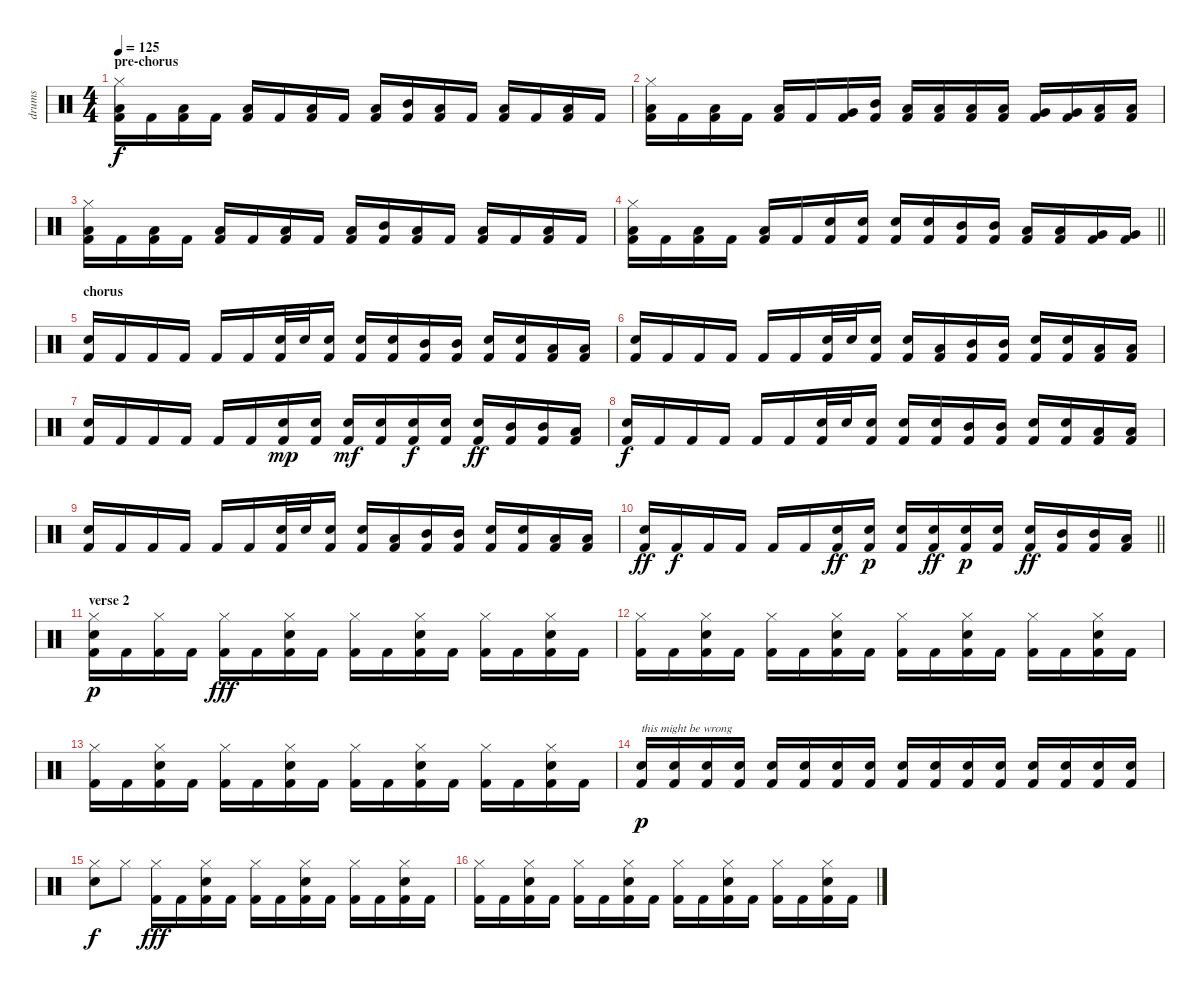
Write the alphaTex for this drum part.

\track ("drums" "drums") {instrument percussion}
\staff {score}
\articulation defaults
\ts (4 4)
\section ("" "pre-chorus")
\tempo 125
\clef neutral
\ks c
("Hi-Hat (closed)" "Low Tom (hit)" "Kick (hit) 2").16{dy f} "Kick (hit) 2".16 ("Low Tom (hit)" "Kick (hit) 2").16 "Kick (hit) 2".16 ("Low Tom (hit)" "Kick (hit) 2").16 "Kick (hit) 2".16 ("Low Tom (hit)" "Kick (hit) 2").16 "Kick (hit) 2".16 ("Low Tom (hit)" "Kick (hit) 2").16 ("Mid Tom (hit)" "Kick (hit) 2").16 ("Low Tom (hit)" "Kick (hit) 2").16 "Kick (hit) 2".16 ("Low Tom (hit)" "Kick (hit) 2").16 "Kick (hit) 2".16 ("Low Tom (hit)" "Kick (hit) 2").16 "Kick (hit) 2".16 |
("Hi-Hat (closed)" "Low Tom (hit)" "Kick (hit) 2").16 "Kick (hit) 2".16 ("Low Tom (hit)" "Kick (hit) 2").16 "Kick (hit) 2".16 ("Low Tom (hit)" "Kick (hit) 2").16 "Kick (hit) 2".16 ("Very Low Tom (hit)" "Kick (hit) 2").16 ("Mid Tom (hit)" "Kick (hit) 2").16 ("Low Tom (hit)" "Kick (hit) 2").16 ("Low Tom (hit)" "Kick (hit) 2").16 ("Low Tom (hit)" "Kick (hit) 2").16 ("Low Tom (hit)" "Kick (hit) 2").16 ("Very Low Tom (hit)" "Kick (hit) 2").16 ("Very Low Tom (hit)" "Kick (hit) 2").16 ("Low Floor Tom (hit)" "Kick (hit) 2").16 ("Low Floor Tom (hit)" "Kick (hit) 2").16 |
("Hi-Hat (closed)" "Low Tom (hit)" "Kick (hit) 2").16 "Kick (hit) 2".16 ("Low Tom (hit)" "Kick (hit) 2").16 "Kick (hit) 2".16 ("Low Tom (hit)" "Kick (hit) 2").16 "Kick (hit) 2".16 ("Low Tom (hit)" "Kick (hit) 2").16 "Kick (hit) 2".16 ("Low Tom (hit)" "Kick (hit) 2").16 ("Mid Tom (hit)" "Kick (hit) 2").16 ("Low Tom (hit)" "Kick (hit) 2").16 "Kick (hit) 2".16 ("Low Tom (hit)" "Kick (hit) 2").16 "Kick (hit) 2".16 ("Low Tom (hit)" "Kick (hit) 2").16 "Kick (hit) 2".16 |
\barLineRight lightlight
("Hi-Hat (closed)" "Low Tom (hit)" "Kick (hit) 2").16 "Kick (hit) 2".16 ("Low Tom (hit)" "Kick (hit) 2").16 "Kick (hit) 2".16 ("Low Tom (hit)" "Kick (hit) 2").16 "Kick (hit) 2".16 ("Electric Snare (hit)" "Kick (hit) 2").16 ("Electric Snare (hit)" "Kick (hit) 2").16 ("Electric Snare (hit)" "Kick (hit) 2").16 ("Electric Snare (hit)" "Kick (hit) 2").16 ("Mid Tom (hit)" "Kick (hit) 2").16 ("Mid Tom (hit)" "Kick (hit) 2").16 ("Low Tom (hit)" "Kick (hit) 2").16 ("Low Tom (hit)" "Kick (hit) 2").16 ("Very Low Tom (hit)" "Kick (hit) 2").16 ("Very Low Tom (hit)" "Kick (hit) 2").16 |
\section ("" "chorus")
("Electric Snare (hit)" "Kick (hit) 2").16 "Kick (hit) 2".16 "Kick (hit) 2".16 "Kick (hit) 2".16 "Kick (hit) 2".16 "Kick (hit) 2".16 ("Electric Snare (hit)" "Kick (hit) 2").32 "Electric Snare (hit)".32 ("Electric Snare (hit)" "Kick (hit) 2").16 ("Electric Snare (hit)" "Kick (hit) 2").16 ("Electric Snare (hit)" "Kick (hit) 2").16 ("Mid Tom (hit)" "Kick (hit) 2").16 ("Mid Tom (hit)" "Kick (hit) 2").16 ("Electric Snare (hit)" "Kick (hit) 2").16 ("Electric Snare (hit)" "Kick (hit) 2").16 ("Low Tom (hit)" "Kick (hit) 2").16 ("Low Tom (hit)" "Kick (hit) 2").16 |
("Electric Snare (hit)" "Kick (hit) 2").16 "Kick (hit) 2".16 "Kick (hit) 2".16 "Kick (hit) 2".16 "Kick (hit) 2".16 "Kick (hit) 2".16 ("Electric Snare (hit)" "Kick (hit) 2").32 "Electric Snare (hit)".32 ("Electric Snare (hit)" "Kick (hit) 2").16 ("Electric Snare (hit)" "Kick (hit) 2").16 ("Low Tom (hit)" "Kick (hit) 2").16 ("Mid Tom (hit)" "Kick (hit) 2").16 ("Mid Tom (hit)" "Kick (hit) 2").16 ("Electric Snare (hit)" "Kick (hit) 2").16 ("Electric Snare (hit)" "Kick (hit) 2").16 ("Low Tom (hit)" "Kick (hit) 2").16 ("Low Tom (hit)" "Kick (hit) 2").16 |
("Electric Snare (hit)" "Kick (hit) 2").16 "Kick (hit) 2".16 "Kick (hit) 2".16 "Kick (hit) 2".16 "Kick (hit) 2".16 "Kick (hit) 2".16 ("Electric Snare (hit)" "Kick (hit) 2").16{dy mp} ("Electric Snare (hit)" "Kick (hit) 2").16 ("Electric Snare (hit)" "Kick (hit) 2").16{dy mf} ("Electric Snare (hit)" "Kick (hit) 2").16 ("Electric Snare (hit)" "Kick (hit) 2").16{dy f} ("Electric Snare (hit)" "Kick (hit) 2").16 ("Electric Snare (hit)" "Kick (hit) 2").16{dy ff} ("Mid Tom (hit)" "Kick (hit) 2").16 ("Mid Tom (hit)" "Kick (hit) 2").16 ("Low Tom (hit)" "Kick (hit) 2").16 |
("Electric Snare (hit)" "Kick (hit) 2").16{dy f} "Kick (hit) 2".16 "Kick (hit) 2".16 "Kick (hit) 2".16 "Kick (hit) 2".16 "Kick (hit) 2".16 ("Electric Snare (hit)" "Kick (hit) 2").32 "Electric Snare (hit)".32 ("Electric Snare (hit)" "Kick (hit) 2").16 ("Electric Snare (hit)" "Kick (hit) 2").16 ("Electric Snare (hit)" "Kick (hit) 2").16 ("Mid Tom (hit)" "Kick (hit) 2").16 ("Mid Tom (hit)" "Kick (hit) 2").16 ("Electric Snare (hit)" "Kick (hit) 2").16 ("Electric Snare (hit)" "Kick (hit) 2").16 ("Low Tom (hit)" "Kick (hit) 2").16 ("Low Tom (hit)" "Kick (hit) 2").16 |
("Electric Snare (hit)" "Kick (hit) 2").16 "Kick (hit) 2".16 "Kick (hit) 2".16 "Kick (hit) 2".16 "Kick (hit) 2".16 "Kick (hit) 2".16 ("Electric Snare (hit)" "Kick (hit) 2").32 "Electric Snare (hit)".32 ("Electric Snare (hit)" "Kick (hit) 2").16 ("Electric Snare (hit)" "Kick (hit) 2").16 ("Low Tom (hit)" "Kick (hit) 2").16 ("Mid Tom (hit)" "Kick (hit) 2").16 ("Mid Tom (hit)" "Kick (hit) 2").16 ("Electric Snare (hit)" "Kick (hit) 2").16 ("Electric Snare (hit)" "Kick (hit) 2").16 ("Low Tom (hit)" "Kick (hit) 2").16 ("Low Tom (hit)" "Kick (hit) 2").16 |
\barLineRight lightlight
("Electric Snare (hit)" "Kick (hit) 2").16{dy ff} "Kick (hit) 2".16{dy f} "Kick (hit) 2".16 "Kick (hit) 2".16 "Kick (hit) 2".16 "Kick (hit) 2".16 ("Electric Snare (hit)" "Kick (hit) 2").16{dy ff} ("Electric Snare (hit)" "Kick (hit) 2").16{dy p} ("Electric Snare (hit)" "Kick (hit) 2").16 ("Electric Snare (hit)" "Kick (hit) 2").16{dy ff} ("Electric Snare (hit)" "Kick (hit) 2").16{dy p} ("Electric Snare (hit)" "Kick (hit) 2").16 ("Electric Snare (hit)" "Kick (hit) 2").16{dy ff} ("Mid Tom (hit)" "Kick (hit) 2").16 ("Mid Tom (hit)" "Kick (hit) 2").16 ("Low Tom (hit)" "Kick (hit) 2").16 |
\section ("" "verse 2")
("Electric Snare (hit)" "Hi-Hat (closed)" "Kick (hit) 2").16{dy p} "Kick (hit) 2".16 ("Hi-Hat (closed)" "Kick (hit) 2").16 "Kick (hit) 2".16 ("Hi-Hat (closed)" "Kick (hit) 2").16{dy fff} "Kick (hit) 2".16 ("Electric Snare (hit)" "Hi-Hat (closed)" "Kick (hit) 2").16 "Kick (hit) 2".16 ("Hi-Hat (closed)" "Kick (hit) 2").16 "Kick (hit) 2".16 ("Electric Snare (hit)" "Hi-Hat (closed)" "Kick (hit) 2").16 "Kick (hit) 2".16 ("Hi-Hat (closed)" "Kick (hit) 2").16 "Kick (hit) 2".16 ("Electric Snare (hit)" "Hi-Hat (closed)" "Kick (hit) 2").16 "Kick (hit) 2".16 |
("Hi-Hat (closed)" "Kick (hit) 2").16 "Kick (hit) 2".16 ("Electric Snare (hit)" "Hi-Hat (closed)" "Kick (hit) 2").16 "Kick (hit) 2".16 ("Hi-Hat (closed)" "Kick (hit) 2").16 "Kick (hit) 2".16 ("Electric Snare (hit)" "Hi-Hat (closed)" "Kick (hit) 2").16 "Kick (hit) 2".16 ("Hi-Hat (closed)" "Kick (hit) 2").16 "Kick (hit) 2".16 ("Electric Snare (hit)" "Hi-Hat (closed)" "Kick (hit) 2").16 "Kick (hit) 2".16 ("Hi-Hat (closed)" "Kick (hit) 2").16 "Kick (hit) 2".16 ("Electric Snare (hit)" "Hi-Hat (closed)" "Kick (hit) 2").16 "Kick (hit) 2".16 |
("Hi-Hat (closed)" "Kick (hit) 2").16 "Kick (hit) 2".16 ("Electric Snare (hit)" "Hi-Hat (closed)" "Kick (hit) 2").16 "Kick (hit) 2".16 ("Hi-Hat (closed)" "Kick (hit) 2").16 "Kick (hit) 2".16 ("Electric Snare (hit)" "Hi-Hat (closed)" "Kick (hit) 2").16 "Kick (hit) 2".16 ("Hi-Hat (closed)" "Kick (hit) 2").16 "Kick (hit) 2".16 ("Electric Snare (hit)" "Hi-Hat (closed)" "Kick (hit) 2").16 "Kick (hit) 2".16 ("Hi-Hat (closed)" "Kick (hit) 2").16 "Kick (hit) 2".16 ("Electric Snare (hit)" "Hi-Hat (closed)" "Kick (hit) 2").16 "Kick (hit) 2".16 |
("Electric Snare (hit)" "Kick (hit) 2").16{txt "this might be wrong" dy p} ("Electric Snare (hit)" "Kick (hit) 2").16 ("Electric Snare (hit)" "Kick (hit) 2").16 ("Electric Snare (hit)" "Kick (hit) 2").16 ("Electric Snare (hit)" "Kick (hit) 2").16 ("Electric Snare (hit)" "Kick (hit) 2").16 ("Electric Snare (hit)" "Kick (hit) 2").16 ("Electric Snare (hit)" "Kick (hit) 2").16 ("Electric Snare (hit)" "Kick (hit) 2").16 ("Electric Snare (hit)" "Kick (hit) 2").16 ("Electric Snare (hit)" "Kick (hit) 2").16 ("Electric Snare (hit)" "Kick (hit) 2").16 ("Electric Snare (hit)" "Kick (hit) 2").16 ("Electric Snare (hit)" "Kick (hit) 2").16 ("Electric Snare (hit)" "Kick (hit) 2").16 ("Electric Snare (hit)" "Kick (hit) 2").16 |
("Electric Snare (hit)" "Hi-Hat (closed)").8{dy f} "Hi-Hat (closed)".8 ("Hi-Hat (closed)" "Kick (hit) 2").16{dy fff} "Kick (hit) 2".16 ("Electric Snare (hit)" "Hi-Hat (closed)" "Kick (hit) 2").16 "Kick (hit) 2".16 ("Hi-Hat (closed)" "Kick (hit) 2").16 "Kick (hit) 2".16 ("Electric Snare (hit)" "Hi-Hat (closed)" "Kick (hit) 2").16 "Kick (hit) 2".16 ("Hi-Hat (closed)" "Kick (hit) 2").16 "Kick (hit) 2".16 ("Electric Snare (hit)" "Hi-Hat (closed)" "Kick (hit) 2").16 "Kick (hit) 2".16 |
("Hi-Hat (closed)" "Kick (hit) 2").16 "Kick (hit) 2".16 ("Electric Snare (hit)" "Hi-Hat (closed)" "Kick (hit) 2").16 "Kick (hit) 2".16 ("Hi-Hat (closed)" "Kick (hit) 2").16 "Kick (hit) 2".16 ("Electric Snare (hit)" "Hi-Hat (closed)" "Kick (hit) 2").16 "Kick (hit) 2".16 ("Hi-Hat (closed)" "Kick (hit) 2").16 "Kick (hit) 2".16 ("Electric Snare (hit)" "Hi-Hat (closed)" "Kick (hit) 2").16 "Kick (hit) 2".16 ("Hi-Hat (closed)" "Kick (hit) 2").16 "Kick (hit) 2".16 ("Electric Snare (hit)" "Hi-Hat (closed)" "Kick (hit) 2").16 "Kick (hit) 2".16
